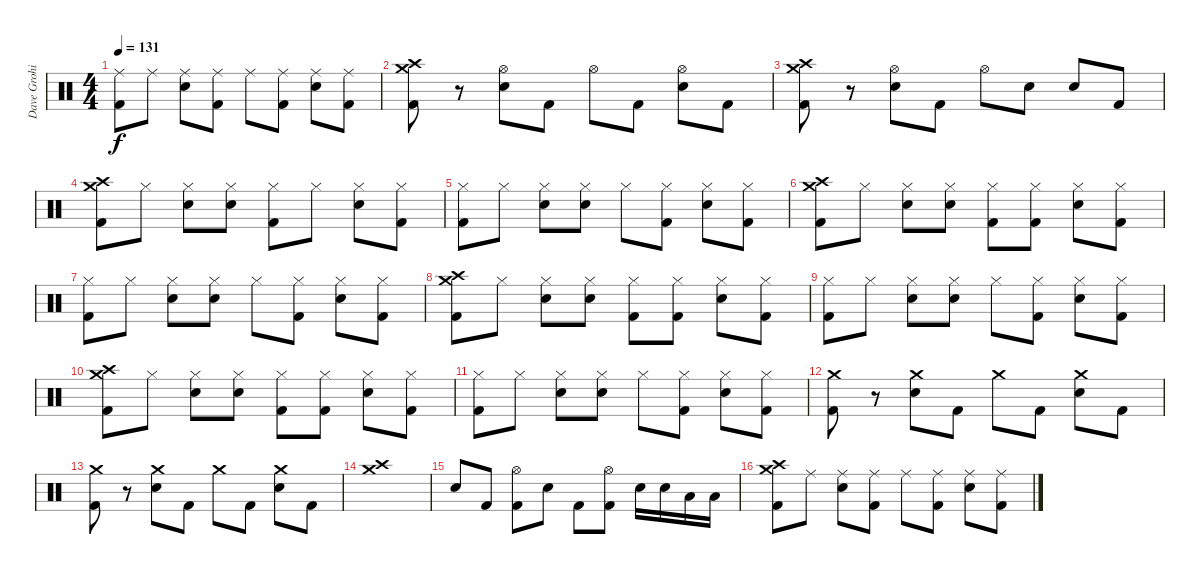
\track ("Dave Grohi" "Dave Grohi") {instrument percussion}
\staff {score}
\articulation defaults
\ts (4 4)
\tempo 131
\clef neutral
\ks c
("Ride (middle)" "Kick (hit) 2").8{dy f} "Ride (middle)".8 ("Ride (middle)" "Snare (hit) 2").8 ("Ride (middle)" "Kick (hit) 2").8 "Ride (middle)".8 ("Ride (middle)" "Kick (hit) 2").8 ("Ride (middle)" "Snare (hit) 2").8 ("Ride (middle)" "Kick (hit) 2").8 |
("Crash high (hit)" "Crash medium (hit)" "Kick (hit) 2").8 r.8 ("Hi-Hat (open)" "Snare (hit) 2").8 "Kick (hit) 2".8 "Hi-Hat (open)".8 "Kick (hit) 2".8 ("Hi-Hat (open)" "Snare (hit) 2").8 "Kick (hit) 2".8 |
("Crash high (hit)" "Crash medium (hit)" "Kick (hit) 2").8 r.8 ("Hi-Hat (open)" "Snare (hit) 2").8 "Kick (hit) 2".8 "Hi-Hat (open)".8 "Snare (hit) 2".8 "Snare (hit) 2".8 "Kick (hit) 2".8 |
("Crash high (hit)" "Crash medium (hit)" "Kick (hit) 2").8 "Hi-Hat (closed)".8 ("Hi-Hat (closed)" "Snare (hit) 2").8 ("Hi-Hat (closed)" "Snare (hit) 2").8 ("Hi-Hat (closed)" "Kick (hit) 2").8 "Hi-Hat (closed)".8 ("Hi-Hat (closed)" "Snare (hit) 2").8 ("Hi-Hat (closed)" "Kick (hit) 2").8 |
("Hi-Hat (closed)" "Kick (hit) 2").8 "Hi-Hat (closed)".8 ("Hi-Hat (closed)" "Snare (hit) 2").8 ("Hi-Hat (closed)" "Snare (hit) 2").8 "Hi-Hat (closed)".8 ("Hi-Hat (closed)" "Kick (hit) 2").8 ("Hi-Hat (closed)" "Snare (hit) 2").8 ("Hi-Hat (closed)" "Kick (hit) 2").8 |
("Crash high (hit)" "Crash medium (hit)" "Kick (hit) 2").8 "Hi-Hat (closed)".8 ("Hi-Hat (closed)" "Snare (hit) 2").8 ("Hi-Hat (closed)" "Snare (hit) 2").8 ("Hi-Hat (closed)" "Kick (hit) 2").8 ("Hi-Hat (closed)" "Kick (hit) 2").8 ("Hi-Hat (closed)" "Snare (hit) 2").8 ("Hi-Hat (closed)" "Kick (hit) 2").8 |
("Hi-Hat (closed)" "Kick (hit) 2").8 "Hi-Hat (closed)".8 ("Hi-Hat (closed)" "Snare (hit) 2").8 ("Hi-Hat (closed)" "Snare (hit) 2").8 "Hi-Hat (closed)".8 ("Hi-Hat (closed)" "Kick (hit) 2").8 ("Hi-Hat (closed)" "Snare (hit) 2").8 ("Hi-Hat (closed)" "Kick (hit) 2").8 |
("Crash high (hit)" "Crash medium (hit)" "Kick (hit) 2").8 "Hi-Hat (closed)".8 ("Hi-Hat (closed)" "Snare (hit) 2").8 ("Hi-Hat (closed)" "Snare (hit) 2").8 ("Hi-Hat (closed)" "Kick (hit) 2").8 ("Hi-Hat (closed)" "Kick (hit) 2").8 ("Hi-Hat (closed)" "Snare (hit) 2").8 ("Hi-Hat (closed)" "Kick (hit) 2").8 |
("Hi-Hat (closed)" "Kick (hit) 2").8 "Hi-Hat (closed)".8 ("Hi-Hat (closed)" "Snare (hit) 2").8 ("Hi-Hat (closed)" "Snare (hit) 2").8 "Hi-Hat (closed)".8 ("Hi-Hat (closed)" "Kick (hit) 2").8 ("Hi-Hat (closed)" "Snare (hit) 2").8 ("Hi-Hat (closed)" "Kick (hit) 2").8 |
("Crash high (hit)" "Crash medium (hit)" "Kick (hit) 2").8 "Hi-Hat (closed)".8 ("Hi-Hat (closed)" "Snare (hit) 2").8 ("Hi-Hat (closed)" "Snare (hit) 2").8 ("Hi-Hat (closed)" "Kick (hit) 2").8 ("Hi-Hat (closed)" "Kick (hit) 2").8 ("Hi-Hat (closed)" "Snare (hit) 2").8 ("Hi-Hat (closed)" "Kick (hit) 2").8 |
("Hi-Hat (closed)" "Kick (hit) 2").8 "Hi-Hat (closed)".8 ("Hi-Hat (closed)" "Snare (hit) 2").8 ("Hi-Hat (closed)" "Snare (hit) 2").8 "Hi-Hat (closed)".8 ("Hi-Hat (closed)" "Kick (hit) 2").8 ("Hi-Hat (closed)" "Snare (hit) 2").8 ("Hi-Hat (closed)" "Kick (hit) 2").8 |
("Crash medium (hit)" "Kick (hit) 2").8 r.8 ("Crash medium (hit)" "Snare (hit) 2").8 "Kick (hit) 2".8 "Crash medium (hit)".8 "Kick (hit) 2".8 ("Crash medium (hit)" "Snare (hit) 2").8 "Kick (hit) 2".8 |
("Crash medium (hit)" "Kick (hit) 2").8 r.8 ("Crash medium (hit)" "Snare (hit) 2").8 "Kick (hit) 2".8 "Crash medium (hit)".8 "Kick (hit) 2".8 ("Crash medium (hit)" "Snare (hit) 2").8 "Kick (hit) 2".8 |
("Crash high (hit)" "Crash medium (hit)").1 |
"Snare (hit) 2".8 "Kick (hit) 2".8 ("Hi-Hat (open)" "Kick (hit) 2").8 "Snare (hit) 2".8 "Kick (hit) 2".8 ("Hi-Hat (open)" "Kick (hit) 2").8 "Snare (hit) 2".16 "Snare (hit) 2".16 "Low Tom (hit)".16 "Low Tom (hit)".16 |
("Crash high (hit)" "Crash medium (hit)" "Kick (hit) 2").8 "Ride (middle)".8 ("Ride (middle)" "Snare (hit) 2").8 ("Ride (middle)" "Kick (hit) 2").8 "Ride (middle)".8 ("Ride (middle)" "Kick (hit) 2").8 ("Ride (middle)" "Snare (hit) 2").8 ("Ride (middle)" "Kick (hit) 2").8
